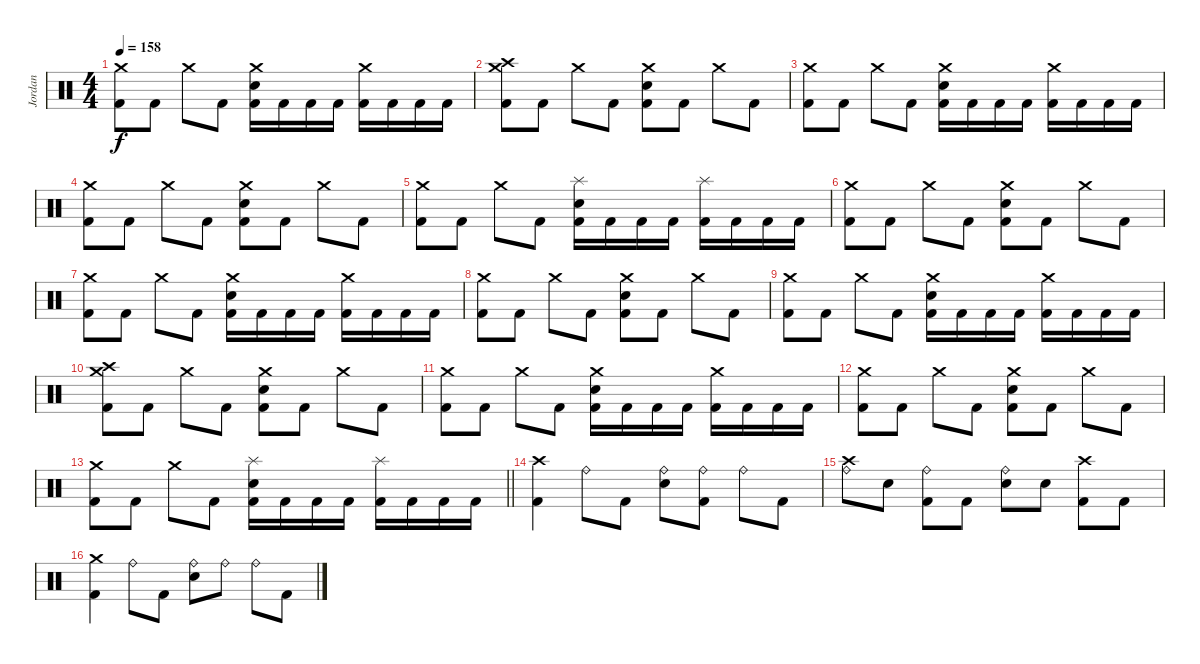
\track ("Jordan" "Jordan") {instrument percussion}
\staff {score}
\articulation defaults
\ts (4 4)
\tempo 158
\clef neutral
\ks c
("Crash medium (hit)" "Kick (hit) 2").8{dy f} "Kick (hit) 2".8 "Crash medium (hit)".8 "Kick (hit) 2".8 ("Crash medium (hit)" "Electric Snare (hit)" "Kick (hit) 2").16 "Kick (hit) 2".16 "Kick (hit) 2".16 "Kick (hit) 2".16 ("Crash medium (hit)" "Kick (hit) 2").16 "Kick (hit) 2".16 "Kick (hit) 2".16 "Kick (hit) 2".16 |
("Crash medium (hit)" "Crash high (hit)" "Kick (hit) 2").8 "Kick (hit) 2".8 "Crash medium (hit)".8 "Kick (hit) 2".8 ("Crash medium (hit)" "Electric Snare (hit)" "Kick (hit) 2").8 "Kick (hit) 2".8 "Crash medium (hit)".8 "Kick (hit) 2".8 |
("Crash medium (hit)" "Kick (hit) 2").8 "Kick (hit) 2".8 "Crash medium (hit)".8 "Kick (hit) 2".8 ("Crash medium (hit)" "Electric Snare (hit)" "Kick (hit) 2").16 "Kick (hit) 2".16 "Kick (hit) 2".16 "Kick (hit) 2".16 ("Crash medium (hit)" "Kick (hit) 2").16 "Kick (hit) 2".16 "Kick (hit) 2".16 "Kick (hit) 2".16 |
("Crash medium (hit)" "Kick (hit) 2").8 "Kick (hit) 2".8 "Crash medium (hit)".8 "Kick (hit) 2".8 ("Crash medium (hit)" "Electric Snare (hit)" "Kick (hit) 2").8 "Kick (hit) 2".8 "Crash medium (hit)".8 "Kick (hit) 2".8 |
("Crash medium (hit)" "Kick (hit) 2").8 "Kick (hit) 2".8 "Crash medium (hit)".8 "Kick (hit) 2".8 ("Splash (hit)" "Electric Snare (hit)" "Kick (hit) 2").16 "Kick (hit) 2".16 "Kick (hit) 2".16 "Kick (hit) 2".16 ("Splash (hit)" "Kick (hit) 2").16 "Kick (hit) 2".16 "Kick (hit) 2".16 "Kick (hit) 2".16 |
("Crash medium (hit)" "Kick (hit) 2").8 "Kick (hit) 2".8 "Crash medium (hit)".8 "Kick (hit) 2".8 ("Crash medium (hit)" "Electric Snare (hit)" "Kick (hit) 2").8 "Kick (hit) 2".8 "Crash medium (hit)".8 "Kick (hit) 2".8 |
("Crash medium (hit)" "Kick (hit) 2").8 "Kick (hit) 2".8 "Crash medium (hit)".8 "Kick (hit) 2".8 ("Crash medium (hit)" "Electric Snare (hit)" "Kick (hit) 2").16 "Kick (hit) 2".16 "Kick (hit) 2".16 "Kick (hit) 2".16 ("Crash medium (hit)" "Kick (hit) 2").16 "Kick (hit) 2".16 "Kick (hit) 2".16 "Kick (hit) 2".16 |
("Crash medium (hit)" "Kick (hit) 2").8 "Kick (hit) 2".8 "Crash medium (hit)".8 "Kick (hit) 2".8 ("Crash medium (hit)" "Electric Snare (hit)" "Kick (hit) 2").8 "Kick (hit) 2".8 "Crash medium (hit)".8 "Kick (hit) 2".8 |
("Crash medium (hit)" "Kick (hit) 2").8 "Kick (hit) 2".8 "Crash medium (hit)".8 "Kick (hit) 2".8 ("Crash medium (hit)" "Electric Snare (hit)" "Kick (hit) 2").16 "Kick (hit) 2".16 "Kick (hit) 2".16 "Kick (hit) 2".16 ("Crash medium (hit)" "Kick (hit) 2").16 "Kick (hit) 2".16 "Kick (hit) 2".16 "Kick (hit) 2".16 |
("Crash medium (hit)" "Crash high (hit)" "Kick (hit) 2").8 "Kick (hit) 2".8 "Crash medium (hit)".8 "Kick (hit) 2".8 ("Crash medium (hit)" "Electric Snare (hit)" "Kick (hit) 2").8 "Kick (hit) 2".8 "Crash medium (hit)".8 "Kick (hit) 2".8 |
("Crash medium (hit)" "Kick (hit) 2").8 "Kick (hit) 2".8 "Crash medium (hit)".8 "Kick (hit) 2".8 ("Crash medium (hit)" "Electric Snare (hit)" "Kick (hit) 2").16 "Kick (hit) 2".16 "Kick (hit) 2".16 "Kick (hit) 2".16 ("Crash medium (hit)" "Kick (hit) 2").16 "Kick (hit) 2".16 "Kick (hit) 2".16 "Kick (hit) 2".16 |
("Crash medium (hit)" "Kick (hit) 2").8 "Kick (hit) 2".8 "Crash medium (hit)".8 "Kick (hit) 2".8 ("Crash medium (hit)" "Electric Snare (hit)" "Kick (hit) 2").8 "Kick (hit) 2".8 "Crash medium (hit)".8 "Kick (hit) 2".8 |
\barLineRight lightlight
("Crash medium (hit)" "Kick (hit) 2").8 "Kick (hit) 2".8 "Crash medium (hit)".8 "Kick (hit) 2".8 ("Splash (hit)" "Electric Snare (hit)" "Kick (hit) 2").16 "Kick (hit) 2".16 "Kick (hit) 2".16 "Kick (hit) 2".16 ("Splash (hit)" "Kick (hit) 2").16 "Kick (hit) 2".16 "Kick (hit) 2".16 "Kick (hit) 2".16 |
("Crash high (hit)" "Kick (hit) 2").4 "Ride (bell)".8 "Kick (hit) 2".8 ("Ride (bell)" "Electric Snare (hit)").8 ("Ride (bell)" "Kick (hit) 2").8 "Ride (bell)".8 "Kick (hit) 2".8 |
("Ride (bell)" "Crash high (hit)").8 "Electric Snare (hit)".8 ("Ride (bell)" "Kick (hit) 2").8 "Kick (hit) 2".8 ("Ride (bell)" "Electric Snare (hit)").8 "Electric Snare (hit)".8 ("Crash high (hit)" "Kick (hit) 2").8 "Kick (hit) 2".8 |
("Crash medium (hit)" "Kick (hit) 2").4 "Ride (bell)".8 "Kick (hit) 2".8 ("Ride (bell)" "Electric Snare (hit)").8 "Ride (bell)".8 "Ride (bell)".8 "Kick (hit) 2".8
